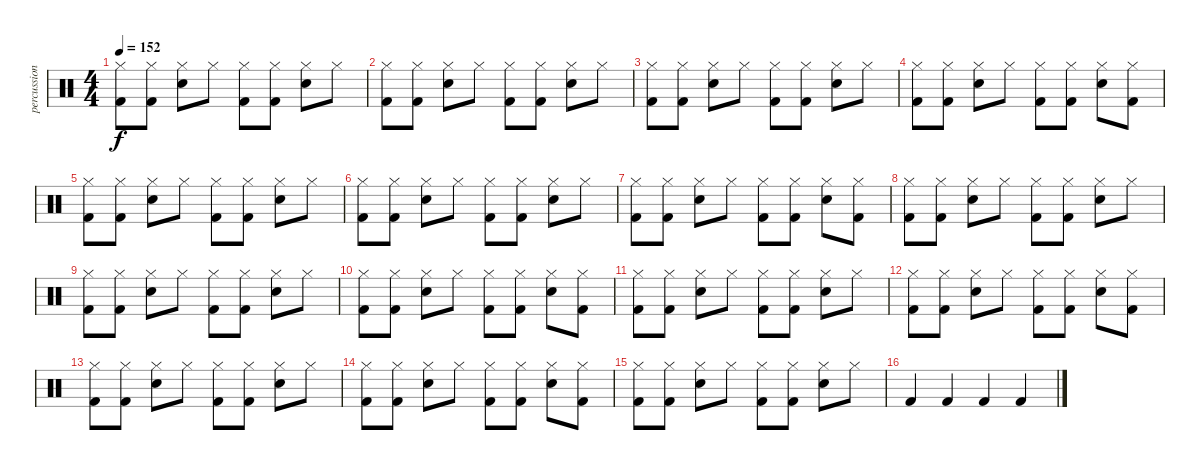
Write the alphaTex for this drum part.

\track ("percussion" "percussion") {instrument percussion}
\staff {score}
\articulation defaults
\ts (4 4)
\tempo 152
\clef neutral
\ks c
("Hi-Hat (closed)" "Kick (hit) 2").8{dy f} ("Hi-Hat (closed)" "Kick (hit) 2").8 ("Electric Snare (hit)" "Hi-Hat (closed)").8 "Hi-Hat (closed)".8 ("Hi-Hat (closed)" "Kick (hit) 2").8 ("Hi-Hat (closed)" "Kick (hit) 2").8 ("Electric Snare (hit)" "Hi-Hat (closed)").8 "Hi-Hat (closed)".8 |
("Hi-Hat (closed)" "Kick (hit) 2").8 ("Hi-Hat (closed)" "Kick (hit) 2").8 ("Electric Snare (hit)" "Hi-Hat (closed)").8 "Hi-Hat (closed)".8 ("Hi-Hat (closed)" "Kick (hit) 2").8 ("Hi-Hat (closed)" "Kick (hit) 2").8 ("Electric Snare (hit)" "Hi-Hat (closed)").8 "Hi-Hat (closed)".8 |
("Hi-Hat (closed)" "Kick (hit) 2").8 ("Hi-Hat (closed)" "Kick (hit) 2").8 ("Electric Snare (hit)" "Hi-Hat (closed)").8 "Hi-Hat (closed)".8 ("Hi-Hat (closed)" "Kick (hit) 2").8 ("Hi-Hat (closed)" "Kick (hit) 2").8 ("Electric Snare (hit)" "Hi-Hat (closed)").8 "Hi-Hat (closed)".8 |
("Hi-Hat (closed)" "Kick (hit) 2").8 ("Hi-Hat (closed)" "Kick (hit) 2").8 ("Electric Snare (hit)" "Hi-Hat (closed)").8 "Hi-Hat (closed)".8 ("Hi-Hat (closed)" "Kick (hit) 2").8 ("Hi-Hat (closed)" "Kick (hit) 2").8 ("Electric Snare (hit)" "Hi-Hat (closed)").8 ("Hi-Hat (closed)" "Kick (hit) 2").8 |
("Hi-Hat (closed)" "Kick (hit) 2").8 ("Hi-Hat (closed)" "Kick (hit) 2").8 ("Electric Snare (hit)" "Hi-Hat (closed)").8 "Hi-Hat (closed)".8 ("Hi-Hat (closed)" "Kick (hit) 2").8 ("Hi-Hat (closed)" "Kick (hit) 2").8 ("Electric Snare (hit)" "Hi-Hat (closed)").8 "Hi-Hat (closed)".8 |
("Hi-Hat (closed)" "Kick (hit) 2").8 ("Hi-Hat (closed)" "Kick (hit) 2").8 ("Electric Snare (hit)" "Hi-Hat (closed)").8 "Hi-Hat (closed)".8 ("Hi-Hat (closed)" "Kick (hit) 2").8 ("Hi-Hat (closed)" "Kick (hit) 2").8 ("Electric Snare (hit)" "Hi-Hat (closed)").8 "Hi-Hat (closed)".8 |
("Hi-Hat (closed)" "Kick (hit) 2").8 ("Hi-Hat (closed)" "Kick (hit) 2").8 ("Electric Snare (hit)" "Hi-Hat (closed)").8 "Hi-Hat (closed)".8 ("Hi-Hat (closed)" "Kick (hit) 2").8 ("Hi-Hat (closed)" "Kick (hit) 2").8 ("Electric Snare (hit)" "Hi-Hat (closed)").8 ("Hi-Hat (closed)" "Kick (hit) 2").8 |
("Hi-Hat (closed)" "Kick (hit) 2").8 ("Hi-Hat (closed)" "Kick (hit) 2").8 ("Electric Snare (hit)" "Hi-Hat (closed)").8 "Hi-Hat (closed)".8 ("Hi-Hat (closed)" "Kick (hit) 2").8 ("Hi-Hat (closed)" "Kick (hit) 2").8 ("Electric Snare (hit)" "Hi-Hat (closed)").8 "Hi-Hat (closed)".8 |
("Hi-Hat (closed)" "Kick (hit) 2").8 ("Hi-Hat (closed)" "Kick (hit) 2").8 ("Electric Snare (hit)" "Hi-Hat (closed)").8 "Hi-Hat (closed)".8 ("Hi-Hat (closed)" "Kick (hit) 2").8 ("Hi-Hat (closed)" "Kick (hit) 2").8 ("Electric Snare (hit)" "Hi-Hat (closed)").8 "Hi-Hat (closed)".8 |
("Hi-Hat (closed)" "Kick (hit) 2").8 ("Hi-Hat (closed)" "Kick (hit) 2").8 ("Electric Snare (hit)" "Hi-Hat (closed)").8 "Hi-Hat (closed)".8 ("Hi-Hat (closed)" "Kick (hit) 2").8 ("Hi-Hat (closed)" "Kick (hit) 2").8 ("Electric Snare (hit)" "Hi-Hat (closed)").8 ("Hi-Hat (closed)" "Kick (hit) 2").8 |
("Hi-Hat (closed)" "Kick (hit) 2").8 ("Hi-Hat (closed)" "Kick (hit) 2").8 ("Electric Snare (hit)" "Hi-Hat (closed)").8 "Hi-Hat (closed)".8 ("Hi-Hat (closed)" "Kick (hit) 2").8 ("Hi-Hat (closed)" "Kick (hit) 2").8 ("Electric Snare (hit)" "Hi-Hat (closed)").8 "Hi-Hat (closed)".8 |
("Hi-Hat (closed)" "Kick (hit) 2").8 ("Hi-Hat (closed)" "Kick (hit) 2").8 ("Electric Snare (hit)" "Hi-Hat (closed)").8 "Hi-Hat (closed)".8 ("Hi-Hat (closed)" "Kick (hit) 2").8 ("Hi-Hat (closed)" "Kick (hit) 2").8 ("Electric Snare (hit)" "Hi-Hat (closed)").8 ("Hi-Hat (closed)" "Kick (hit) 2").8 |
("Hi-Hat (closed)" "Kick (hit) 2").8 ("Hi-Hat (closed)" "Kick (hit) 2").8 ("Electric Snare (hit)" "Hi-Hat (closed)").8 "Hi-Hat (closed)".8 ("Hi-Hat (closed)" "Kick (hit) 2").8 ("Hi-Hat (closed)" "Kick (hit) 2").8 ("Electric Snare (hit)" "Hi-Hat (closed)").8 "Hi-Hat (closed)".8 |
("Hi-Hat (closed)" "Kick (hit) 2").8 ("Hi-Hat (closed)" "Kick (hit) 2").8 ("Electric Snare (hit)" "Hi-Hat (closed)").8 "Hi-Hat (closed)".8 ("Hi-Hat (closed)" "Kick (hit) 2").8 ("Hi-Hat (closed)" "Kick (hit) 2").8 ("Electric Snare (hit)" "Hi-Hat (closed)").8 ("Hi-Hat (closed)" "Kick (hit) 2").8 |
("Hi-Hat (closed)" "Kick (hit) 2").8 ("Hi-Hat (closed)" "Kick (hit) 2").8 ("Electric Snare (hit)" "Hi-Hat (closed)").8 "Hi-Hat (closed)".8 ("Hi-Hat (closed)" "Kick (hit) 2").8 ("Hi-Hat (closed)" "Kick (hit) 2").8 ("Electric Snare (hit)" "Hi-Hat (closed)").8 "Hi-Hat (closed)".8 |
"Kick (hit) 2".4 "Kick (hit) 2".4 "Kick (hit) 2".4 "Kick (hit) 2".4
